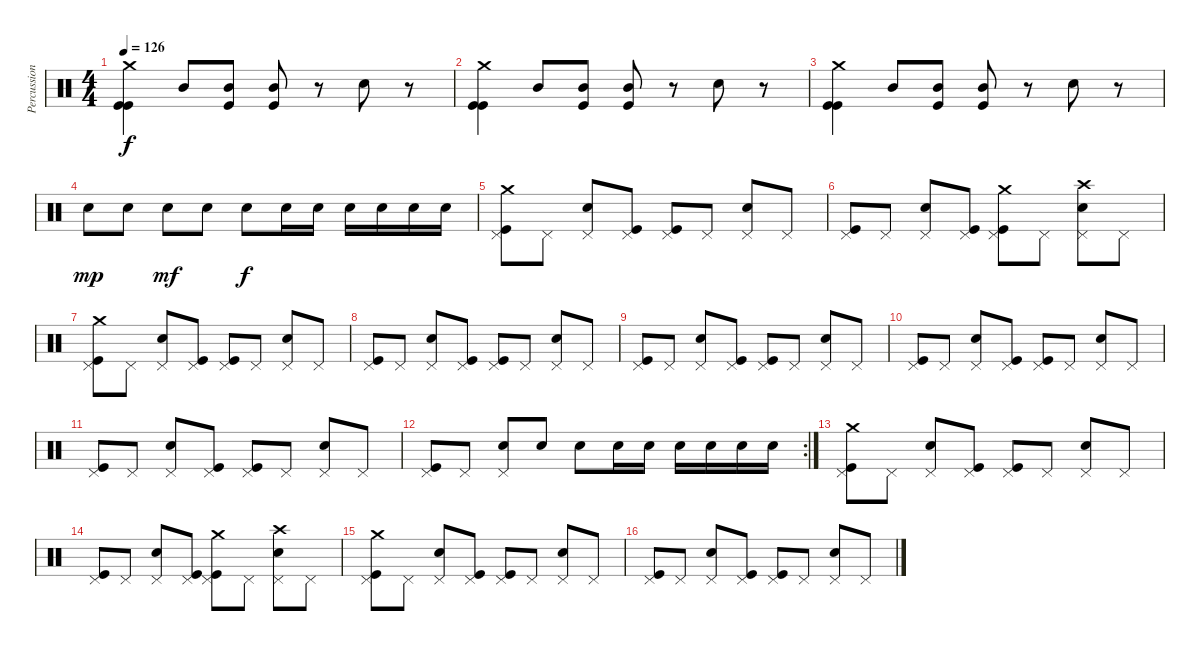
\track ("Percussion" "Percussion") {instrument percussion}
\staff {score}
\articulation defaults
\ts (4 4)
\tempo 126
\clef neutral
\ks c
("Crash medium (hit)" "Kick (hit)" "Kick (hit)").4{dy f} "Mid Tom (hit)".8 ("Mid Tom (hit)" "Kick (hit)").8 ("Mid Tom (hit)" "Kick (hit)").8 r.8 "Snare (hit) 2".8 r.8 |
("Crash medium (hit)" "Kick (hit)" "Kick (hit)").4 "Mid Tom (hit)".8 ("Mid Tom (hit)" "Kick (hit)").8 ("Mid Tom (hit)" "Kick (hit)").8 r.8 "Snare (hit) 2".8 r.8 |
("Crash medium (hit)" "Kick (hit)" "Kick (hit)").4 "Mid Tom (hit)".8 ("Mid Tom (hit)" "Kick (hit)").8 ("Mid Tom (hit)" "Kick (hit)").8 r.8 "Snare (hit) 2".8 r.8 |
"Snare (hit) 2".8{dy mp} "Snare (hit) 2".8 "Snare (hit) 2".8{dy mf} "Snare (hit) 2".8 "Snare (hit) 2".8{dy f} "Snare (hit) 2".16 "Snare (hit) 2".16 "Snare (hit) 2".16 "Snare (hit) 2".16 "Snare (hit) 2".16 "Snare (hit) 2".16 |
("Crash medium (hit)" "Pedal Hi-Hat (hit)" "Kick (hit)").8 "Pedal Hi-Hat (hit)".8 ("Pedal Hi-Hat (hit)" "Snare (hit) 2").8 ("Pedal Hi-Hat (hit)" "Kick (hit)").8 ("Pedal Hi-Hat (hit)" "Kick (hit)").8 "Pedal Hi-Hat (hit)".8 ("Pedal Hi-Hat (hit)" "Snare (hit) 2").8 "Pedal Hi-Hat (hit)".8 |
("Pedal Hi-Hat (hit)" "Kick (hit)").8 "Pedal Hi-Hat (hit)".8 ("Pedal Hi-Hat (hit)" "Snare (hit) 2").8 ("Pedal Hi-Hat (hit)" "Kick (hit)").8 ("Crash medium (hit)" "Pedal Hi-Hat (hit)" "Kick (hit)").8 "Pedal Hi-Hat (hit)".8 ("Crash high (hit)" "Pedal Hi-Hat (hit)" "Snare (hit) 2").8 "Pedal Hi-Hat (hit)".8 |
("Crash medium (hit)" "Pedal Hi-Hat (hit)" "Kick (hit)").8 "Pedal Hi-Hat (hit)".8 ("Pedal Hi-Hat (hit)" "Snare (hit) 2").8 ("Pedal Hi-Hat (hit)" "Kick (hit)").8 ("Pedal Hi-Hat (hit)" "Kick (hit)").8 "Pedal Hi-Hat (hit)".8 ("Pedal Hi-Hat (hit)" "Snare (hit) 2").8 "Pedal Hi-Hat (hit)".8 |
("Pedal Hi-Hat (hit)" "Kick (hit)").8 "Pedal Hi-Hat (hit)".8 ("Pedal Hi-Hat (hit)" "Snare (hit) 2").8 ("Pedal Hi-Hat (hit)" "Kick (hit)").8 ("Pedal Hi-Hat (hit)" "Kick (hit)").8 "Pedal Hi-Hat (hit)".8 ("Pedal Hi-Hat (hit)" "Snare (hit) 2").8 "Pedal Hi-Hat (hit)".8 |
("Pedal Hi-Hat (hit)" "Kick (hit)").8 "Pedal Hi-Hat (hit)".8 ("Pedal Hi-Hat (hit)" "Snare (hit) 2").8 ("Pedal Hi-Hat (hit)" "Kick (hit)").8 ("Pedal Hi-Hat (hit)" "Kick (hit)").8 "Pedal Hi-Hat (hit)".8 ("Pedal Hi-Hat (hit)" "Snare (hit) 2").8 "Pedal Hi-Hat (hit)".8 |
("Pedal Hi-Hat (hit)" "Kick (hit)").8 "Pedal Hi-Hat (hit)".8 ("Pedal Hi-Hat (hit)" "Snare (hit) 2").8 ("Pedal Hi-Hat (hit)" "Kick (hit)").8 ("Pedal Hi-Hat (hit)" "Kick (hit)").8 "Pedal Hi-Hat (hit)".8 ("Pedal Hi-Hat (hit)" "Snare (hit) 2").8 "Pedal Hi-Hat (hit)".8 |
("Pedal Hi-Hat (hit)" "Kick (hit)").8 "Pedal Hi-Hat (hit)".8 ("Pedal Hi-Hat (hit)" "Snare (hit) 2").8 ("Pedal Hi-Hat (hit)" "Kick (hit)").8 ("Pedal Hi-Hat (hit)" "Kick (hit)").8 "Pedal Hi-Hat (hit)".8 ("Pedal Hi-Hat (hit)" "Snare (hit) 2").8 "Pedal Hi-Hat (hit)".8 |
\rc 2
("Pedal Hi-Hat (hit)" "Kick (hit)").8 "Pedal Hi-Hat (hit)".8 ("Pedal Hi-Hat (hit)" "Snare (hit) 2").8 "Snare (hit) 2".8 "Snare (hit) 2".8 "Snare (hit) 2".16 "Snare (hit) 2".16 "Snare (hit) 2".16 "Snare (hit) 2".16 "Snare (hit) 2".16 "Snare (hit) 2".16 |
("Crash medium (hit)" "Pedal Hi-Hat (hit)" "Kick (hit)").8 "Pedal Hi-Hat (hit)".8 ("Pedal Hi-Hat (hit)" "Snare (hit) 2").8 ("Pedal Hi-Hat (hit)" "Kick (hit)").8 ("Pedal Hi-Hat (hit)" "Kick (hit)").8 "Pedal Hi-Hat (hit)".8 ("Pedal Hi-Hat (hit)" "Snare (hit) 2").8 "Pedal Hi-Hat (hit)".8 |
("Pedal Hi-Hat (hit)" "Kick (hit)").8 "Pedal Hi-Hat (hit)".8 ("Pedal Hi-Hat (hit)" "Snare (hit) 2").8 ("Pedal Hi-Hat (hit)" "Kick (hit)").8 ("Crash medium (hit)" "Pedal Hi-Hat (hit)" "Kick (hit)").8 "Pedal Hi-Hat (hit)".8 ("Crash high (hit)" "Pedal Hi-Hat (hit)" "Snare (hit) 2").8 "Pedal Hi-Hat (hit)".8 |
("Crash medium (hit)" "Pedal Hi-Hat (hit)" "Kick (hit)").8 "Pedal Hi-Hat (hit)".8 ("Pedal Hi-Hat (hit)" "Snare (hit) 2").8 ("Pedal Hi-Hat (hit)" "Kick (hit)").8 ("Pedal Hi-Hat (hit)" "Kick (hit)").8 "Pedal Hi-Hat (hit)".8 ("Pedal Hi-Hat (hit)" "Snare (hit) 2").8 "Pedal Hi-Hat (hit)".8 |
("Pedal Hi-Hat (hit)" "Kick (hit)").8 "Pedal Hi-Hat (hit)".8 ("Pedal Hi-Hat (hit)" "Snare (hit) 2").8 ("Pedal Hi-Hat (hit)" "Kick (hit)").8 ("Pedal Hi-Hat (hit)" "Kick (hit)").8 "Pedal Hi-Hat (hit)".8 ("Pedal Hi-Hat (hit)" "Snare (hit) 2").8 "Pedal Hi-Hat (hit)".8
